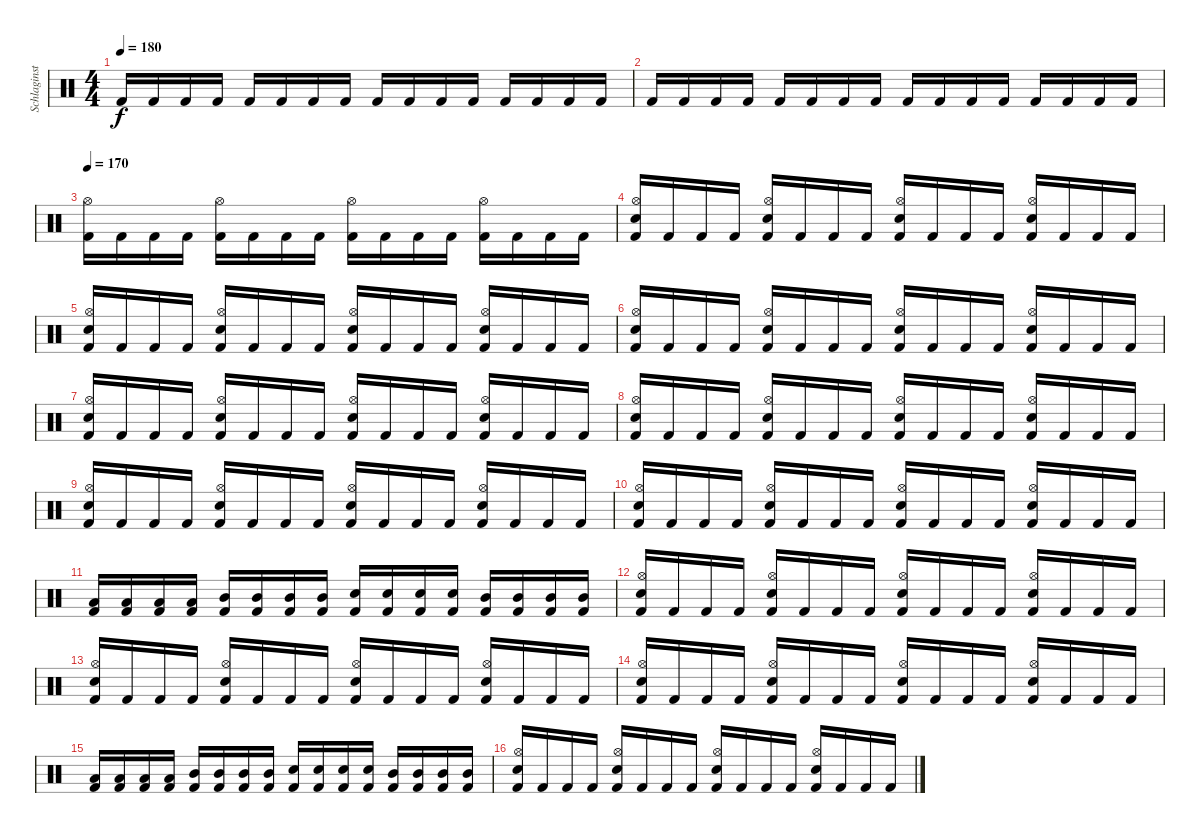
\track ("Schlaginstrumente - Auswahl" "Schlaginst") {instrument percussion}
\staff {score}
\articulation defaults
\ts (4 4)
\tempo 180
\clef neutral
\ks c "Kick (hit) 2".16{dy f} "Kick (hit) 2".16 "Kick (hit) 2".16 "Kick (hit) 2".16 "Kick (hit) 2".16 "Kick (hit) 2".16 "Kick (hit) 2".16 "Kick (hit) 2".16 "Kick (hit) 2".16 "Kick (hit) 2".16 "Kick (hit) 2".16 "Kick (hit) 2".16 "Kick (hit) 2".16 "Kick (hit) 2".16 "Kick (hit) 2".16 "Kick (hit) 2".16
|
"Kick (hit) 2".16 "Kick (hit) 2".16 "Kick (hit) 2".16 "Kick (hit) 2".16 "Kick (hit) 2".16 "Kick (hit) 2".16 "Kick (hit) 2".16 "Kick (hit) 2".16 "Kick (hit) 2".16 "Kick (hit) 2".16 "Kick (hit) 2".16 "Kick (hit) 2".16 "Kick (hit) 2".16 "Kick (hit) 2".16 "Kick (hit) 2".16 "Kick (hit) 2".16 |
\tempo 170
("Hi-Hat (open)" "Kick (hit) 2").16 "Kick (hit) 2".16 "Kick (hit) 2".16 "Kick (hit) 2".16 ("Hi-Hat (open)" "Kick (hit) 2").16 "Kick (hit) 2".16 "Kick (hit) 2".16 "Kick (hit) 2".16 ("Hi-Hat (open)" "Kick (hit) 2").16 "Kick (hit) 2".16 "Kick (hit) 2".16 "Kick (hit) 2".16 ("Hi-Hat (open)" "Kick (hit) 2").16 "Kick (hit) 2".16 "Kick (hit) 2".16 "Kick (hit) 2".16 |
("Hi-Hat (open)" "Snare (hit) 2" "Kick (hit) 2").16 "Kick (hit) 2".16 "Kick (hit) 2".16 "Kick (hit) 2".16 ("Hi-Hat (open)" "Snare (hit) 2" "Kick (hit) 2").16 "Kick (hit) 2".16 "Kick (hit) 2".16 "Kick (hit) 2".16 ("Hi-Hat (open)" "Snare (hit) 2" "Kick (hit) 2").16 "Kick (hit) 2".16 "Kick (hit) 2".16 "Kick (hit) 2".16 ("Hi-Hat (open)" "Snare (hit) 2" "Kick (hit) 2").16 "Kick (hit) 2".16 "Kick (hit) 2".16 "Kick (hit) 2".16 |
("Hi-Hat (open)" "Snare (hit) 2" "Kick (hit) 2").16 "Kick (hit) 2".16 "Kick (hit) 2".16 "Kick (hit) 2".16 ("Hi-Hat (open)" "Snare (hit) 2" "Kick (hit) 2").16 "Kick (hit) 2".16 "Kick (hit) 2".16 "Kick (hit) 2".16 ("Hi-Hat (open)" "Snare (hit) 2" "Kick (hit) 2").16 "Kick (hit) 2".16 "Kick (hit) 2".16 "Kick (hit) 2".16 ("Hi-Hat (open)" "Snare (hit) 2" "Kick (hit) 2").16 "Kick (hit) 2".16 "Kick (hit) 2".16 "Kick (hit) 2".16 |
("Hi-Hat (open)" "Snare (hit) 2" "Kick (hit) 2").16 "Kick (hit) 2".16 "Kick (hit) 2".16 "Kick (hit) 2".16 ("Hi-Hat (open)" "Snare (hit) 2" "Kick (hit) 2").16 "Kick (hit) 2".16 "Kick (hit) 2".16 "Kick (hit) 2".16 ("Hi-Hat (open)" "Snare (hit) 2" "Kick (hit) 2").16 "Kick (hit) 2".16 "Kick (hit) 2".16 "Kick (hit) 2".16 ("Hi-Hat (open)" "Snare (hit) 2" "Kick (hit) 2").16 "Kick (hit) 2".16 "Kick (hit) 2".16 "Kick (hit) 2".16 |
("Hi-Hat (open)" "Snare (hit) 2" "Kick (hit) 2").16 "Kick (hit) 2".16 "Kick (hit) 2".16 "Kick (hit) 2".16 ("Hi-Hat (open)" "Snare (hit) 2" "Kick (hit) 2").16 "Kick (hit) 2".16 "Kick (hit) 2".16 "Kick (hit) 2".16 ("Hi-Hat (open)" "Snare (hit) 2" "Kick (hit) 2").16 "Kick (hit) 2".16 "Kick (hit) 2".16 "Kick (hit) 2".16 ("Hi-Hat (open)" "Snare (hit) 2" "Kick (hit) 2").16 "Kick (hit) 2".16 "Kick (hit) 2".16 "Kick (hit) 2".16 |
("Hi-Hat (open)" "Snare (hit) 2" "Kick (hit) 2").16 "Kick (hit) 2".16 "Kick (hit) 2".16 "Kick (hit) 2".16 ("Hi-Hat (open)" "Snare (hit) 2" "Kick (hit) 2").16 "Kick (hit) 2".16 "Kick (hit) 2".16 "Kick (hit) 2".16 ("Hi-Hat (open)" "Snare (hit) 2" "Kick (hit) 2").16 "Kick (hit) 2".16 "Kick (hit) 2".16 "Kick (hit) 2".16 ("Hi-Hat (open)" "Snare (hit) 2" "Kick (hit) 2").16 "Kick (hit) 2".16 "Kick (hit) 2".16 "Kick (hit) 2".16 |
("Hi-Hat (open)" "Snare (hit) 2" "Kick (hit) 2").16 "Kick (hit) 2".16 "Kick (hit) 2".16 "Kick (hit) 2".16 ("Hi-Hat (open)" "Snare (hit) 2" "Kick (hit) 2").16 "Kick (hit) 2".16 "Kick (hit) 2".16 "Kick (hit) 2".16 ("Hi-Hat (open)" "Snare (hit) 2" "Kick (hit) 2").16 "Kick (hit) 2".16 "Kick (hit) 2".16 "Kick (hit) 2".16 ("Hi-Hat (open)" "Snare (hit) 2" "Kick (hit) 2").16 "Kick (hit) 2".16 "Kick (hit) 2".16 "Kick (hit) 2".16 |
("Hi-Hat (open)" "Snare (hit) 2" "Kick (hit) 2").16 "Kick (hit) 2".16 "Kick (hit) 2".16 "Kick (hit) 2".16 ("Hi-Hat (open)" "Snare (hit) 2" "Kick (hit) 2").16 "Kick (hit) 2".16 "Kick (hit) 2".16 "Kick (hit) 2".16 ("Hi-Hat (open)" "Snare (hit) 2" "Kick (hit) 2").16 "Kick (hit) 2".16 "Kick (hit) 2".16 "Kick (hit) 2".16 ("Hi-Hat (open)" "Snare (hit) 2" "Kick (hit) 2").16 "Kick (hit) 2".16 "Kick (hit) 2".16 "Kick (hit) 2".16 |
("Low Tom (hit)" "Kick (hit) 2").16 ("Low Tom (hit)" "Kick (hit) 2").16 ("Low Tom (hit)" "Kick (hit) 2").16 ("Low Tom (hit)" "Kick (hit) 2").16 ("Mid Tom (hit)" "Kick (hit) 2").16 ("Mid Tom (hit)" "Kick (hit) 2").16 ("Mid Tom (hit)" "Kick (hit) 2").16 ("Mid Tom (hit)" "Kick (hit) 2").16 ("Snare (hit) 2" "Kick (hit) 2").16 ("Snare (hit) 2" "Kick (hit) 2").16 ("Snare (hit) 2" "Kick (hit) 2").16 ("Snare (hit) 2" "Kick (hit) 2").16 ("Mid Tom (hit)" "Kick (hit) 2").16 ("Mid Tom (hit)" "Kick (hit) 2").16 ("Mid Tom (hit)" "Kick (hit) 2").16 ("Mid Tom (hit)" "Kick (hit) 2").16 |
("Hi-Hat (open)" "Snare (hit) 2" "Kick (hit) 2").16 "Kick (hit) 2".16 "Kick (hit) 2".16 "Kick (hit) 2".16 ("Hi-Hat (open)" "Snare (hit) 2" "Kick (hit) 2").16 "Kick (hit) 2".16 "Kick (hit) 2".16 "Kick (hit) 2".16 ("Hi-Hat (open)" "Snare (hit) 2" "Kick (hit) 2").16 "Kick (hit) 2".16 "Kick (hit) 2".16 "Kick (hit) 2".16 ("Hi-Hat (open)" "Snare (hit) 2" "Kick (hit) 2").16 "Kick (hit) 2".16 "Kick (hit) 2".16 "Kick (hit) 2".16 |
("Hi-Hat (open)" "Snare (hit) 2" "Kick (hit) 2").16 "Kick (hit) 2".16 "Kick (hit) 2".16 "Kick (hit) 2".16 ("Hi-Hat (open)" "Snare (hit) 2" "Kick (hit) 2").16 "Kick (hit) 2".16 "Kick (hit) 2".16 "Kick (hit) 2".16 ("Hi-Hat (open)" "Snare (hit) 2" "Kick (hit) 2").16 "Kick (hit) 2".16 "Kick (hit) 2".16 "Kick (hit) 2".16 ("Hi-Hat (open)" "Snare (hit) 2" "Kick (hit) 2").16 "Kick (hit) 2".16 "Kick (hit) 2".16 "Kick (hit) 2".16 |
("Hi-Hat (open)" "Snare (hit) 2" "Kick (hit) 2").16 "Kick (hit) 2".16 "Kick (hit) 2".16 "Kick (hit) 2".16 ("Hi-Hat (open)" "Snare (hit) 2" "Kick (hit) 2").16 "Kick (hit) 2".16 "Kick (hit) 2".16 "Kick (hit) 2".16 ("Hi-Hat (open)" "Snare (hit) 2" "Kick (hit) 2").16 "Kick (hit) 2".16 "Kick (hit) 2".16 "Kick (hit) 2".16 ("Hi-Hat (open)" "Snare (hit) 2" "Kick (hit) 2").16 "Kick (hit) 2".16 "Kick (hit) 2".16 "Kick (hit) 2".16 |
("Low Tom (hit)" "Kick (hit) 2").16 ("Low Tom (hit)" "Kick (hit) 2").16 ("Low Tom (hit)" "Kick (hit) 2").16 ("Low Tom (hit)" "Kick (hit) 2").16 ("Mid Tom (hit)" "Kick (hit) 2").16 ("Mid Tom (hit)" "Kick (hit) 2").16 ("Mid Tom (hit)" "Kick (hit) 2").16 ("Mid Tom (hit)" "Kick (hit) 2").16 ("Snare (hit) 2" "Kick (hit) 2").16 ("Snare (hit) 2" "Kick (hit) 2").16 ("Snare (hit) 2" "Kick (hit) 2").16 ("Snare (hit) 2" "Kick (hit) 2").16 ("Mid Tom (hit)" "Kick (hit) 2").16 ("Mid Tom (hit)" "Kick (hit) 2").16 ("Mid Tom (hit)" "Kick (hit) 2").16 ("Mid Tom (hit)" "Kick (hit) 2").16 |
("Hi-Hat (open)" "Snare (hit) 2" "Kick (hit) 2").16 "Kick (hit) 2".16 "Kick (hit) 2".16 "Kick (hit) 2".16 ("Hi-Hat (open)" "Snare (hit) 2" "Kick (hit) 2").16 "Kick (hit) 2".16 "Kick (hit) 2".16 "Kick (hit) 2".16 ("Hi-Hat (open)" "Snare (hit) 2" "Kick (hit) 2").16 "Kick (hit) 2".16 "Kick (hit) 2".16 "Kick (hit) 2".16 ("Hi-Hat (open)" "Snare (hit) 2" "Kick (hit) 2").16 "Kick (hit) 2".16 "Kick (hit) 2".16 "Kick (hit) 2".16
